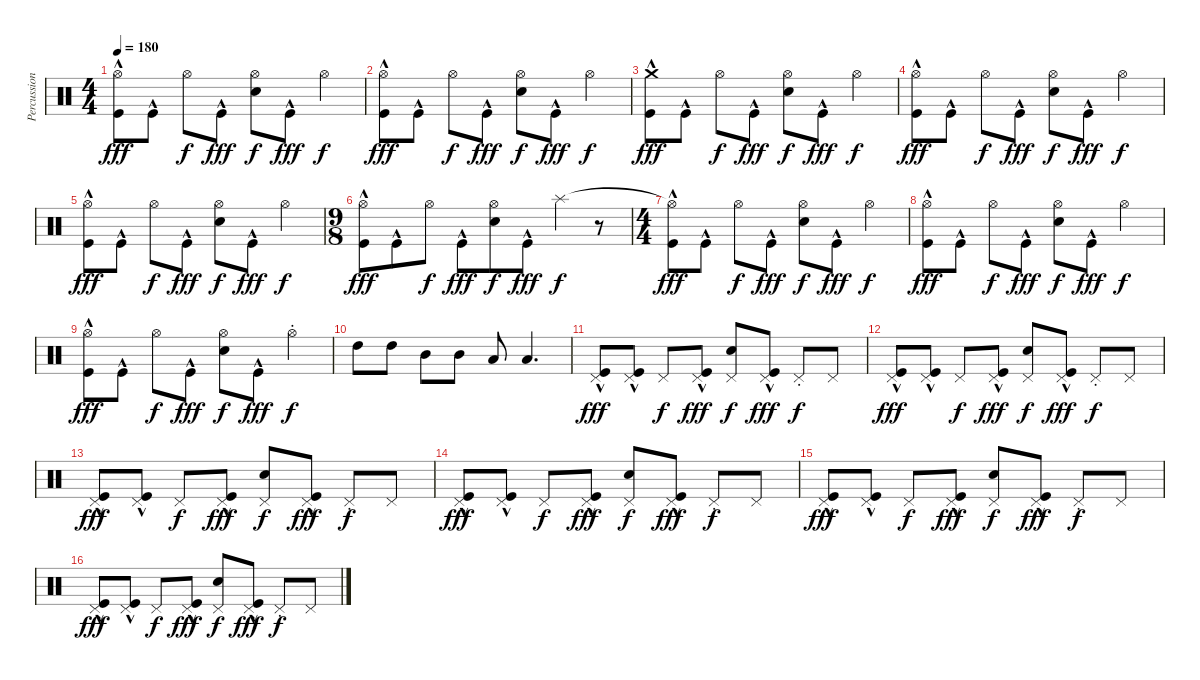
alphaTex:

\track ("Percussion" "Percussion") {instrument percussion}
\staff {score}
\articulation defaults
\ts (4 4)
\tempo 180
\clef neutral
\ks c
("Hi-Hat (open)" "Kick (hit)"{hac}).8{dy fff} "Kick (hit)"{hac}.8 "Hi-Hat (open)".8{dy f} "Kick (hit)"{hac}.8{dy fff} ("Hi-Hat (open)" "Electric Snare (hit)").8{dy f} "Kick (hit)"{hac}.8{dy fff} "Hi-Hat (open)".4{dy f} |
("Hi-Hat (open)" "Kick (hit)"{hac}).8{dy fff} "Kick (hit)"{hac}.8 "Hi-Hat (open)".8{dy f} "Kick (hit)"{hac}.8{dy fff} ("Hi-Hat (open)" "Electric Snare (hit)").8{dy f} "Kick (hit)"{hac}.8{dy fff} "Hi-Hat (open)".4{dy f} |
("Crash medium (hit)" "Kick (hit)"{hac}).8{dy fff} "Kick (hit)"{hac}.8 "Hi-Hat (open)".8{dy f} "Kick (hit)"{hac}.8{dy fff} ("Hi-Hat (open)" "Electric Snare (hit)").8{dy f} "Kick (hit)"{hac}.8{dy fff} "Hi-Hat (open)".4{dy f} |
("Hi-Hat (open)" "Kick (hit)"{hac}).8{dy fff} "Kick (hit)"{hac}.8 "Hi-Hat (open)".8{dy f} "Kick (hit)"{hac}.8{dy fff} ("Hi-Hat (open)" "Electric Snare (hit)").8{dy f} "Kick (hit)"{hac}.8{dy fff} "Hi-Hat (open)".4{dy f} |
("Hi-Hat (open)" "Kick (hit)"{hac}).8{dy fff} "Kick (hit)"{hac}.8 "Hi-Hat (open)".8{dy f} "Kick (hit)"{hac}.8{dy fff} ("Hi-Hat (open)" "Electric Snare (hit)").8{dy f} "Kick (hit)"{hac}.8{dy fff} "Hi-Hat (open)".4{dy f} |
\ts (9 8)
("Hi-Hat (open)" "Kick (hit)"{hac}).8{dy fff} "Kick (hit)"{hac}.8 "Hi-Hat (open)".8{dy f} "Kick (hit)"{hac}.8{dy fff} ("Hi-Hat (open)" "Electric Snare (hit)").8{dy f} "Kick (hit)"{hac}.8{dy fff} "Splash (hit)".4{dy f} r.8 |
\ts (4 4)
("Hi-Hat (open)"{t} "Kick (hit)"{hac}).8{dy fff} "Kick (hit)"{hac}.8 "Hi-Hat (open)".8{dy f} "Kick (hit)"{hac}.8{dy fff} ("Hi-Hat (open)" "Electric Snare (hit)").8{dy f} "Kick (hit)"{hac}.8{dy fff} "Hi-Hat (open)".4{dy f} |
("Hi-Hat (open)" "Kick (hit)"{hac}).8{dy fff} "Kick (hit)"{hac}.8 "Hi-Hat (open)".8{dy f} "Kick (hit)"{hac}.8{dy fff} ("Hi-Hat (open)" "Electric Snare (hit)").8{dy f} "Kick (hit)"{hac}.8{dy fff} "Hi-Hat (open)".4{dy f} |
("Hi-Hat (open)" "Kick (hit)"{hac}).8{dy fff} "Kick (hit)"{hac}.8 "Hi-Hat (open)".8{dy f} "Kick (hit)"{hac}.8{dy fff} ("Hi-Hat (open)" "Electric Snare (hit)").8{dy f} "Kick (hit)"{hac}.8{dy fff} "Hi-Hat (open)"{st}.4{dy f} |
"High Tom (hit)".8 "High Tom (hit)".8 "Mid Tom (hit)".8 "Mid Tom (hit)".8 "Low Tom (hit)".8 "Low Tom (hit)".4{d} |
("Pedal Hi-Hat (hit)" "Kick (hit)"{hac}).8{dy fff} ("Pedal Hi-Hat (hit)" "Kick (hit)"{hac}).8 "Pedal Hi-Hat (hit)".8{dy f} ("Pedal Hi-Hat (hit)" "Kick (hit)"{hac}).8{dy fff} ("Pedal Hi-Hat (hit)" "Electric Snare (hit)").8{dy f} ("Pedal Hi-Hat (hit)" "Kick (hit)"{hac}).8{dy fff} "Pedal Hi-Hat (hit)"{st}.8{dy f} "Pedal Hi-Hat (hit)".8 |
("Pedal Hi-Hat (hit)" "Kick (hit)"{hac}).8{dy fff} ("Pedal Hi-Hat (hit)" "Kick (hit)"{hac}).8 "Pedal Hi-Hat (hit)".8{dy f} ("Pedal Hi-Hat (hit)" "Kick (hit)"{hac}).8{dy fff} ("Pedal Hi-Hat (hit)" "Electric Snare (hit)").8{dy f} ("Pedal Hi-Hat (hit)" "Kick (hit)"{hac}).8{dy fff} "Pedal Hi-Hat (hit)"{st}.8{dy f} "Pedal Hi-Hat (hit)".8 |
("Pedal Hi-Hat (hit)" "Kick (hit)"{hac}).8{dy fff} ("Pedal Hi-Hat (hit)" "Kick (hit)"{hac}).8 "Pedal Hi-Hat (hit)".8{dy f} ("Pedal Hi-Hat (hit)" "Kick (hit)"{hac}).8{dy fff} ("Pedal Hi-Hat (hit)" "Electric Snare (hit)").8{dy f} ("Pedal Hi-Hat (hit)" "Kick (hit)"{hac}).8{dy fff} "Pedal Hi-Hat (hit)"{st}.8{dy f} "Pedal Hi-Hat (hit)".8 |
("Pedal Hi-Hat (hit)" "Kick (hit)"{hac}).8{dy fff} ("Pedal Hi-Hat (hit)" "Kick (hit)"{hac}).8 "Pedal Hi-Hat (hit)".8{dy f} ("Pedal Hi-Hat (hit)" "Kick (hit)"{hac}).8{dy fff} ("Pedal Hi-Hat (hit)" "Electric Snare (hit)").8{dy f} ("Pedal Hi-Hat (hit)" "Kick (hit)"{hac}).8{dy fff} "Pedal Hi-Hat (hit)"{st}.8{dy f} "Pedal Hi-Hat (hit)".8 |
("Pedal Hi-Hat (hit)" "Kick (hit)"{hac}).8{dy fff} ("Pedal Hi-Hat (hit)" "Kick (hit)"{hac}).8 "Pedal Hi-Hat (hit)".8{dy f} ("Pedal Hi-Hat (hit)" "Kick (hit)"{hac}).8{dy fff} ("Pedal Hi-Hat (hit)" "Electric Snare (hit)").8{dy f} ("Pedal Hi-Hat (hit)" "Kick (hit)"{hac}).8{dy fff} "Pedal Hi-Hat (hit)"{st}.8{dy f} "Pedal Hi-Hat (hit)".8 |
("Pedal Hi-Hat (hit)" "Kick (hit)"{hac}).8{dy fff} ("Pedal Hi-Hat (hit)" "Kick (hit)"{hac}).8 "Pedal Hi-Hat (hit)".8{dy f} ("Pedal Hi-Hat (hit)" "Kick (hit)"{hac}).8{dy fff} ("Pedal Hi-Hat (hit)" "Electric Snare (hit)").8{dy f} ("Pedal Hi-Hat (hit)" "Kick (hit)"{hac}).8{dy fff} "Pedal Hi-Hat (hit)"{st}.8{dy f} "Pedal Hi-Hat (hit)".8
